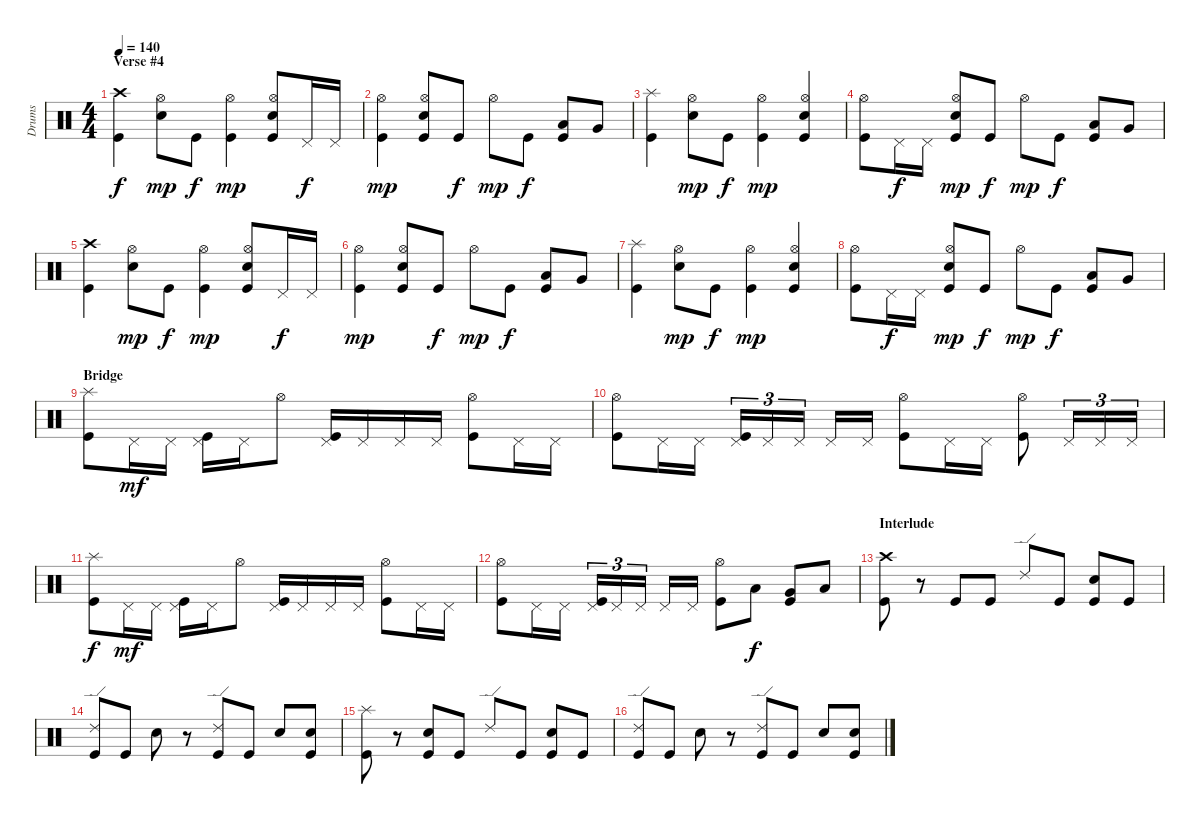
\track ("Drums" "Drums") {instrument percussion}
\staff {score}
\articulation defaults
\ts (4 4)
\section ("" "Verse #4")
\tempo 140
\clef neutral
\ks c
("Crash high (hit)" "Kick (hit)").4{dy f} ("Hi-Hat (open)" "Electric Snare (hit)").8{dy mp} "Kick (hit)".8{dy f} ("Hi-Hat (open)" "Kick (hit)").4{dy mp} ("Hi-Hat (open)" "Electric Snare (hit)" "Kick (hit)").8 "Pedal Hi-Hat (hit)".16{dy f} "Pedal Hi-Hat (hit)".16 |
("Hi-Hat (open)" "Kick (hit)").4{dy mp} ("Hi-Hat (open)" "Electric Snare (hit)" "Kick (hit)").8 "Kick (hit)".8{dy f} "Hi-Hat (open)".8{dy mp} "Kick (hit)".8{dy f} ("Low Tom (hit)" "Kick (hit)").8 "Very Low Tom (hit)".8 |
("Splash (hit)" "Kick (hit)").4 ("Hi-Hat (open)" "Electric Snare (hit)").8{dy mp} "Kick (hit)".8{dy f} ("Hi-Hat (open)" "Kick (hit)").4{dy mp} ("Hi-Hat (open)" "Electric Snare (hit)" "Kick (hit)").4 |
("Hi-Hat (open)" "Kick (hit)").8 "Pedal Hi-Hat (hit)".16{dy f} "Pedal Hi-Hat (hit)".16 ("Hi-Hat (open)" "Electric Snare (hit)" "Kick (hit)").8{dy mp} "Kick (hit)".8{dy f} "Hi-Hat (open)".8{dy mp} "Kick (hit)".8{dy f} ("Low Tom (hit)" "Kick (hit)").8 "Very Low Tom (hit)".8 |
("Crash high (hit)" "Kick (hit)").4 ("Hi-Hat (open)" "Electric Snare (hit)").8{dy mp} "Kick (hit)".8{dy f} ("Hi-Hat (open)" "Kick (hit)").4{dy mp} ("Hi-Hat (open)" "Electric Snare (hit)" "Kick (hit)").8 "Pedal Hi-Hat (hit)".16{dy f} "Pedal Hi-Hat (hit)".16 |
("Hi-Hat (open)" "Kick (hit)").4{dy mp} ("Hi-Hat (open)" "Electric Snare (hit)" "Kick (hit)").8 "Kick (hit)".8{dy f} "Hi-Hat (open)".8{dy mp} "Kick (hit)".8{dy f} ("Low Tom (hit)" "Kick (hit)").8 "Very Low Tom (hit)".8 |
("Splash (hit)" "Kick (hit)").4 ("Hi-Hat (open)" "Electric Snare (hit)").8{dy mp} "Kick (hit)".8{dy f} ("Hi-Hat (open)" "Kick (hit)").4{dy mp} ("Hi-Hat (open)" "Electric Snare (hit)" "Kick (hit)").4 |
("Hi-Hat (open)" "Kick (hit)").8 "Pedal Hi-Hat (hit)".16{dy f} "Pedal Hi-Hat (hit)".16 ("Hi-Hat (open)" "Electric Snare (hit)" "Kick (hit)").8{dy mp} "Kick (hit)".8{dy f} "Hi-Hat (open)".8{dy mp} "Kick (hit)".8{dy f} ("Low Tom (hit)" "Kick (hit)").8 "Very Low Tom (hit)".8 |
\section ("" "Bridge")
("Splash (hit)" "Kick (hit)").8 "Pedal Hi-Hat (hit)".16{dy mf} "Pedal Hi-Hat (hit)".16 ("Pedal Hi-Hat (hit)" "Kick (hit)").16 "Pedal Hi-Hat (hit)".16 "Hi-Hat (open)".8 ("Pedal Hi-Hat (hit)" "Kick (hit)").16 "Pedal Hi-Hat (hit)".16 "Pedal Hi-Hat (hit)".16 "Pedal Hi-Hat (hit)".16 ("Hi-Hat (open)" "Kick (hit)").8 "Pedal Hi-Hat (hit)".16 "Pedal Hi-Hat (hit)".16 |
("Hi-Hat (open)" "Kick (hit)").8 "Pedal Hi-Hat (hit)".16 "Pedal Hi-Hat (hit)".16 ("Pedal Hi-Hat (hit)" "Kick (hit)").16{tu (3 2)} "Pedal Hi-Hat (hit)".16{tu (3 2)} "Pedal Hi-Hat (hit)".16{tu (3 2)} "Pedal Hi-Hat (hit)".16 "Pedal Hi-Hat (hit)".16 ("Hi-Hat (open)" "Kick (hit)").8 "Pedal Hi-Hat (hit)".16 "Pedal Hi-Hat (hit)".16 ("Hi-Hat (open)" "Kick (hit)").8 "Pedal Hi-Hat (hit)".16{tu (3 2)} "Pedal Hi-Hat (hit)".16{tu (3 2)} "Pedal Hi-Hat (hit)".16{tu (3 2)} |
("Splash (hit)" "Kick (hit)").8{dy f} "Pedal Hi-Hat (hit)".16{dy mf} "Pedal Hi-Hat (hit)".16 ("Pedal Hi-Hat (hit)" "Kick (hit)").16 "Pedal Hi-Hat (hit)".16 "Hi-Hat (open)".8 ("Pedal Hi-Hat (hit)" "Kick (hit)").16 "Pedal Hi-Hat (hit)".16 "Pedal Hi-Hat (hit)".16 "Pedal Hi-Hat (hit)".16 ("Hi-Hat (open)" "Kick (hit)").8 "Pedal Hi-Hat (hit)".16 "Pedal Hi-Hat (hit)".16 |
("Hi-Hat (open)" "Kick (hit)").8 "Pedal Hi-Hat (hit)".16 "Pedal Hi-Hat (hit)".16 ("Pedal Hi-Hat (hit)" "Kick (hit)").16{tu (3 2)} "Pedal Hi-Hat (hit)".16{tu (3 2)} "Pedal Hi-Hat (hit)".16{tu (3 2)} "Pedal Hi-Hat (hit)".16 "Pedal Hi-Hat (hit)".16 ("Hi-Hat (open)" "Kick (hit)").8 "Low Tom (hit)".8{dy f} ("Very Low Tom (hit)" "Kick (hit)").8 "Low Floor Tom (hit)".8 |
\section ("" "Interlude")
("Crash high (hit)" "Kick (hit)").8 r.8 "Kick (hit)".8 "Kick (hit)".8 "Ride (edge) 2".8 "Kick (hit)".8 ("Electric Snare (hit)" "Kick (hit)").8 "Kick (hit)".8 |
("Ride (edge) 2" "Kick (hit)").8 "Kick (hit)".8 "Electric Snare (hit)".8 r.8 ("Ride (edge) 2" "Kick (hit)").8 "Kick (hit)".8 "Electric Snare (hit)".8 ("Electric Snare (hit)" "Kick (hit)").8 |
("Splash (hit)" "Kick (hit)").8 r.8 ("Electric Snare (hit)" "Kick (hit)").8 "Kick (hit)".8 "Ride (edge) 2".8 "Kick (hit)".8 ("Electric Snare (hit)" "Kick (hit)").8 "Kick (hit)".8 |
("Ride (edge) 2" "Kick (hit)").8 "Kick (hit)".8 "Electric Snare (hit)".8 r.8 ("Ride (edge) 2" "Kick (hit)").8 "Kick (hit)".8 "Electric Snare (hit)".8 ("Electric Snare (hit)" "Kick (hit)").8
